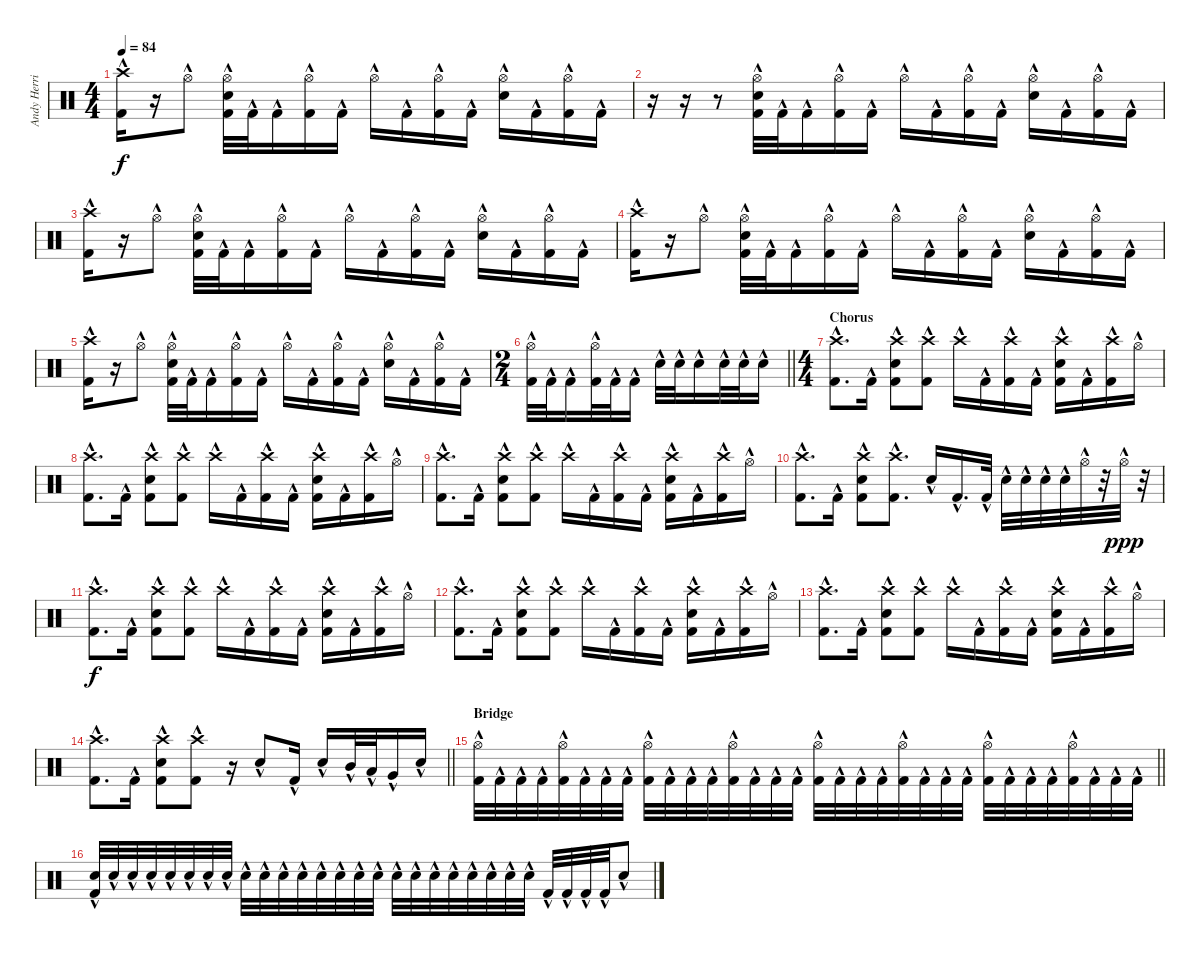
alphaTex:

\track ("Andy Herrick" "Andy Herri") {instrument percussion}
\staff {score}
\articulation defaults
\ts (4 4)
\tempo 84
\clef neutral
\ks c
("Crash high (hit)"{hac} "Kick (hit) 2"{hac}).16{dy f} r.16 "Hi-Hat (open)"{hac}.8 ("Hi-Hat (open)"{hac} "Electric Snare (hit)"{hac} "Kick (hit) 2"{hac}).32 "Kick (hit) 2"{hac}.32 "Kick (hit) 2"{hac}.16 ("Hi-Hat (open)"{hac} "Kick (hit) 2"{hac}).16 "Kick (hit) 2"{hac}.16 "Hi-Hat (open)"{hac}.16 "Kick (hit) 2"{hac}.16 ("Hi-Hat (open)"{hac} "Kick (hit) 2"{hac}).16 "Kick (hit) 2"{hac}.16 ("Hi-Hat (open)"{hac} "Electric Snare (hit)"{hac}).16 "Kick (hit) 2"{hac}.16 ("Hi-Hat (open)"{hac} "Kick (hit) 2"{hac}).16 "Kick (hit) 2"{hac}.16 |
r.16 r.16 r.8 ("Hi-Hat (open)"{hac} "Electric Snare (hit)"{hac} "Kick (hit) 2"{hac}).32 "Kick (hit) 2"{hac}.32 "Kick (hit) 2"{hac}.16 ("Hi-Hat (open)"{hac} "Kick (hit) 2"{hac}).16 "Kick (hit) 2"{hac}.16 "Hi-Hat (open)"{hac}.16 "Kick (hit) 2"{hac}.16 ("Hi-Hat (open)"{hac} "Kick (hit) 2"{hac}).16 "Kick (hit) 2"{hac}.16 ("Hi-Hat (open)"{hac} "Electric Snare (hit)"{hac}).16 "Kick (hit) 2"{hac}.16 ("Hi-Hat (open)"{hac} "Kick (hit) 2"{hac}).16 "Kick (hit) 2"{hac}.16 |
("Crash high (hit)"{hac} "Kick (hit) 2"{hac}).16 r.16 "Hi-Hat (open)"{hac}.8 ("Hi-Hat (open)"{hac} "Electric Snare (hit)"{hac} "Kick (hit) 2"{hac}).32 "Kick (hit) 2"{hac}.32 "Kick (hit) 2"{hac}.16 ("Hi-Hat (open)"{hac} "Kick (hit) 2"{hac}).16 "Kick (hit) 2"{hac}.16 "Hi-Hat (open)"{hac}.16 "Kick (hit) 2"{hac}.16 ("Hi-Hat (open)"{hac} "Kick (hit) 2"{hac}).16 "Kick (hit) 2"{hac}.16 ("Hi-Hat (open)"{hac} "Electric Snare (hit)"{hac}).16 "Kick (hit) 2"{hac}.16 ("Hi-Hat (open)"{hac} "Kick (hit) 2"{hac}).16 "Kick (hit) 2"{hac}.16 |
("Crash high (hit)"{hac} "Kick (hit) 2"{hac}).16 r.16 "Hi-Hat (open)"{hac}.8 ("Hi-Hat (open)"{hac} "Electric Snare (hit)"{hac} "Kick (hit) 2"{hac}).32 "Kick (hit) 2"{hac}.32 "Kick (hit) 2"{hac}.16 ("Hi-Hat (open)"{hac} "Kick (hit) 2"{hac}).16 "Kick (hit) 2"{hac}.16 "Hi-Hat (open)"{hac}.16 "Kick (hit) 2"{hac}.16 ("Hi-Hat (open)"{hac} "Kick (hit) 2"{hac}).16 "Kick (hit) 2"{hac}.16 ("Hi-Hat (open)"{hac} "Electric Snare (hit)"{hac}).16 "Kick (hit) 2"{hac}.16 ("Hi-Hat (open)"{hac} "Kick (hit) 2"{hac}).16 "Kick (hit) 2"{hac}.16 |
("Crash high (hit)"{hac} "Kick (hit) 2"{hac}).16 r.16 "Hi-Hat (open)"{hac}.8 ("Hi-Hat (open)"{hac} "Electric Snare (hit)"{hac} "Kick (hit) 2"{hac}).32 "Kick (hit) 2"{hac}.32 "Kick (hit) 2"{hac}.16 ("Hi-Hat (open)"{hac} "Kick (hit) 2"{hac}).16 "Kick (hit) 2"{hac}.16 "Hi-Hat (open)"{hac}.16 "Kick (hit) 2"{hac}.16 ("Hi-Hat (open)"{hac} "Kick (hit) 2"{hac}).16 "Kick (hit) 2"{hac}.16 ("Hi-Hat (open)"{hac} "Electric Snare (hit)"{hac}).16 "Kick (hit) 2"{hac}.16 ("Hi-Hat (open)"{hac} "Kick (hit) 2"{hac}).16 "Kick (hit) 2"{hac}.16 |
\ts (2 4)
\barLineRight lightlight
("Hi-Hat (open)"{hac} "Kick (hit) 2"{hac}).32 "Kick (hit) 2"{hac}.32 "Kick (hit) 2"{hac}.16 ("Hi-Hat (open)"{hac} "Kick (hit) 2"{hac}).32 "Kick (hit) 2"{hac}.32 "Kick (hit) 2"{hac}.16 "Electric Snare (hit)"{hac}.32 "Electric Snare (hit)"{hac}.32 "Electric Snare (hit)"{hac}.16 "Electric Snare (hit)"{hac}.32 "Electric Snare (hit)"{hac}.32 "Electric Snare (hit)"{hac}.16 |
\ts (4 4)
\section ("" "Chorus")
("Crash high (hit)"{hac} "Kick (hit) 2"{hac}).8{d} "Kick (hit) 2"{hac}.16 ("Crash high (hit)"{hac} "Electric Snare (hit)"{hac} "Kick (hit) 2"{hac}).8 ("Crash high (hit)"{hac} "Kick (hit) 2"{hac}).8 "Crash high (hit)"{hac}.16 "Kick (hit) 2"{hac}.16 ("Crash high (hit)"{hac} "Kick (hit) 2"{hac}).16 "Kick (hit) 2"{hac}.16 ("Crash high (hit)"{hac} "Electric Snare (hit)"{hac} "Kick (hit) 2"{hac}).16 "Kick (hit) 2"{hac}.16 ("Crash high (hit)"{hac} "Kick (hit) 2"{hac}).16 "Hi-Hat (open)"{hac}.16 |
("Crash high (hit)"{hac} "Kick (hit) 2"{hac}).8{d} "Kick (hit) 2"{hac}.16 ("Crash high (hit)"{hac} "Electric Snare (hit)"{hac} "Kick (hit) 2"{hac}).8 ("Crash high (hit)"{hac} "Kick (hit) 2"{hac}).8 "Crash high (hit)"{hac}.16 "Kick (hit) 2"{hac}.16 ("Crash high (hit)"{hac} "Kick (hit) 2"{hac}).16 "Kick (hit) 2"{hac}.16 ("Crash high (hit)"{hac} "Electric Snare (hit)"{hac} "Kick (hit) 2"{hac}).16 "Kick (hit) 2"{hac}.16 ("Crash high (hit)"{hac} "Kick (hit) 2"{hac}).16 "Hi-Hat (open)"{hac}.16 |
("Crash high (hit)"{hac} "Kick (hit) 2"{hac}).8{d} "Kick (hit) 2"{hac}.16 ("Crash high (hit)"{hac} "Electric Snare (hit)"{hac} "Kick (hit) 2"{hac}).8 ("Crash high (hit)"{hac} "Kick (hit) 2"{hac}).8 "Crash high (hit)"{hac}.16 "Kick (hit) 2"{hac}.16 ("Crash high (hit)"{hac} "Kick (hit) 2"{hac}).16 "Kick (hit) 2"{hac}.16 ("Crash high (hit)"{hac} "Electric Snare (hit)"{hac} "Kick (hit) 2"{hac}).16 "Kick (hit) 2"{hac}.16 ("Crash high (hit)"{hac} "Kick (hit) 2"{hac}).16 "Hi-Hat (open)"{hac}.16 |
("Crash high (hit)"{hac} "Kick (hit) 2"{hac}).8{d} "Kick (hit) 2"{hac}.16 ("Crash high (hit)"{hac} "Electric Snare (hit)"{hac} "Kick (hit) 2"{hac}).8 ("Crash high (hit)"{hac} "Kick (hit) 2"{hac}).8{d} "Electric Snare (hit)"{hac}.16 "Kick (hit) 2"{hac}.16{d} "Kick (hit) 2"{hac}.32 "Electric Snare (hit)"{hac}.32 "Electric Snare (hit)"{hac}.32 "Electric Snare (hit)"{hac}.32 "Electric Snare (hit)"{hac}.32 "Hi-Hat (open)"{hac}.32 r.32 "Hi-Hat (open)"{hac}.32{dy ppp} r.32 |
("Crash high (hit)"{hac} "Kick (hit) 2"{hac}).8{d dy f} "Kick (hit) 2"{hac}.16 ("Crash high (hit)"{hac} "Electric Snare (hit)"{hac} "Kick (hit) 2"{hac}).8 ("Crash high (hit)"{hac} "Kick (hit) 2"{hac}).8 "Crash high (hit)"{hac}.16 "Kick (hit) 2"{hac}.16 ("Crash high (hit)"{hac} "Kick (hit) 2"{hac}).16 "Kick (hit) 2"{hac}.16 ("Crash high (hit)"{hac} "Electric Snare (hit)"{hac} "Kick (hit) 2"{hac}).16 "Kick (hit) 2"{hac}.16 ("Crash high (hit)"{hac} "Kick (hit) 2"{hac}).16 "Hi-Hat (open)"{hac}.16 |
("Crash high (hit)"{hac} "Kick (hit) 2"{hac}).8{d} "Kick (hit) 2"{hac}.16 ("Crash high (hit)"{hac} "Electric Snare (hit)"{hac} "Kick (hit) 2"{hac}).8 ("Crash high (hit)"{hac} "Kick (hit) 2"{hac}).8 "Crash high (hit)"{hac}.16 "Kick (hit) 2"{hac}.16 ("Crash high (hit)"{hac} "Kick (hit) 2"{hac}).16 "Kick (hit) 2"{hac}.16 ("Crash high (hit)"{hac} "Electric Snare (hit)"{hac} "Kick (hit) 2"{hac}).16 "Kick (hit) 2"{hac}.16 ("Crash high (hit)"{hac} "Kick (hit) 2"{hac}).16 "Hi-Hat (open)"{hac}.16 |
("Crash high (hit)"{hac} "Kick (hit) 2"{hac}).8{d} "Kick (hit) 2"{hac}.16 ("Crash high (hit)"{hac} "Electric Snare (hit)"{hac} "Kick (hit) 2"{hac}).8 ("Crash high (hit)"{hac} "Kick (hit) 2"{hac}).8 "Crash high (hit)"{hac}.16 "Kick (hit) 2"{hac}.16 ("Crash high (hit)"{hac} "Kick (hit) 2"{hac}).16 "Kick (hit) 2"{hac}.16 ("Crash high (hit)"{hac} "Electric Snare (hit)"{hac} "Kick (hit) 2"{hac}).16 "Kick (hit) 2"{hac}.16 ("Crash high (hit)"{hac} "Kick (hit) 2"{hac}).16 "Hi-Hat (open)"{hac}.16 |
\barLineRight lightlight
("Crash high (hit)"{hac} "Kick (hit) 2"{hac}).8{d} "Kick (hit) 2"{hac}.16 ("Crash high (hit)"{hac} "Electric Snare (hit)"{hac} "Kick (hit) 2"{hac}).8 ("Crash high (hit)"{hac} "Kick (hit) 2"{hac}).8 r.16 "Electric Snare (hit)"{hac}.8 "Kick (hit) 2"{hac}.16 "Electric Snare (hit)"{hac}.16 "Mid Tom (hit)"{hac}.32 "Low Tom (hit)"{hac}.32 "Very Low Tom (hit)"{hac}.16 "Electric Snare (hit)"{hac}.16 |
\section ("" "Bridge")
\barLineRight lightlight
("Hi-Hat (open)"{hac} "Kick (hit) 2"{hac}).32 "Kick (hit) 2"{hac}.32 "Kick (hit) 2"{hac}.32 "Kick (hit) 2"{hac}.32 ("Hi-Hat (open)"{hac} "Kick (hit) 2"{hac}).32 "Kick (hit) 2"{hac}.32 "Kick (hit) 2"{hac}.32 "Kick (hit) 2"{hac}.32 ("Hi-Hat (open)"{hac} "Kick (hit) 2"{hac}).32 "Kick (hit) 2"{hac}.32 "Kick (hit) 2"{hac}.32 "Kick (hit) 2"{hac}.32 ("Hi-Hat (open)"{hac} "Kick (hit) 2"{hac}).32 "Kick (hit) 2"{hac}.32 "Kick (hit) 2"{hac}.32 "Kick (hit) 2"{hac}.32 ("Hi-Hat (open)"{hac} "Kick (hit) 2"{hac}).32 "Kick (hit) 2"{hac}.32 "Kick (hit) 2"{hac}.32 "Kick (hit) 2"{hac}.32 ("Hi-Hat (open)"{hac} "Kick (hit) 2"{hac}).32 "Kick (hit) 2"{hac}.32 "Kick (hit) 2"{hac}.32 "Kick (hit) 2"{hac}.32 ("Hi-Hat (open)"{hac} "Kick (hit) 2"{hac}).32 "Kick (hit) 2"{hac}.32 "Kick (hit) 2"{hac}.32 "Kick (hit) 2"{hac}.32 ("Hi-Hat (open)"{hac} "Kick (hit) 2"{hac}).32 "Kick (hit) 2"{hac}.32 "Kick (hit) 2"{hac}.32 "Kick (hit) 2"{hac}.32{volume 4} |
("Electric Snare (hit)"{hac} "Kick (hit) 2"{hac}).32{volume 16} "Electric Snare (hit)"{hac}.32 "Electric Snare (hit)"{hac}.32 "Electric Snare (hit)"{hac}.32 "Electric Snare (hit)"{hac}.32 "Electric Snare (hit)"{hac}.32 "Electric Snare (hit)"{hac}.32 "Electric Snare (hit)"{hac}.32 "Electric Snare (hit)"{hac}.32 "Electric Snare (hit)"{hac}.32 "Electric Snare (hit)"{hac}.32 "Electric Snare (hit)"{hac}.32 "Electric Snare (hit)"{hac}.32 "Electric Snare (hit)"{hac}.32 "Electric Snare (hit)"{hac}.32 "Electric Snare (hit)"{hac}.32 "Electric Snare (hit)"{hac}.32 "Electric Snare (hit)"{hac}.32 "Electric Snare (hit)"{hac}.32 "Electric Snare (hit)"{hac}.32 "Electric Snare (hit)"{hac}.32 "Electric Snare (hit)"{hac}.32 "Electric Snare (hit)"{hac}.32 "Electric Snare (hit)"{hac}.32 "Kick (hit) 2"{hac}.32 "Kick (hit) 2"{hac}.32 "Kick (hit) 2"{hac}.32 "Kick (hit) 2"{hac}.32 "Electric Snare (hit)"{hac}.8
